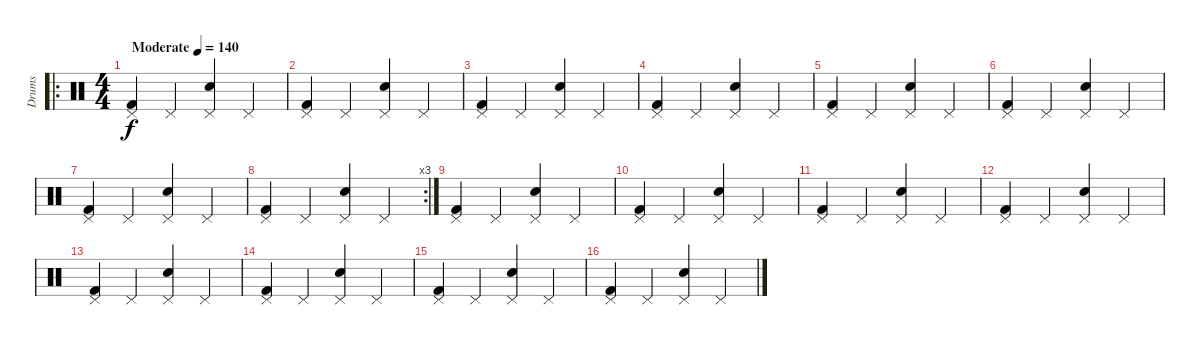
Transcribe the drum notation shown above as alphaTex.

\track ("Drums" "Drums") {instrument percussion}
\staff {score}
\articulation defaults
\ro
\ts (4 4)
\tempo (140 "Moderate")
\clef neutral
\ks c
("Kick (hit) 2" "Pedal Hi-Hat (hit)").4{dy f} "Pedal Hi-Hat (hit)".4 ("Electric Snare (hit)" "Pedal Hi-Hat (hit)").4 "Pedal Hi-Hat (hit)".4 |
("Kick (hit) 2" "Pedal Hi-Hat (hit)").4 "Pedal Hi-Hat (hit)".4 ("Electric Snare (hit)" "Pedal Hi-Hat (hit)").4 "Pedal Hi-Hat (hit)".4 |
("Kick (hit) 2" "Pedal Hi-Hat (hit)").4 "Pedal Hi-Hat (hit)".4 ("Electric Snare (hit)" "Pedal Hi-Hat (hit)").4 "Pedal Hi-Hat (hit)".4 |
("Kick (hit) 2" "Pedal Hi-Hat (hit)").4 "Pedal Hi-Hat (hit)".4 ("Electric Snare (hit)" "Pedal Hi-Hat (hit)").4 "Pedal Hi-Hat (hit)".4 |
("Kick (hit) 2" "Pedal Hi-Hat (hit)").4 "Pedal Hi-Hat (hit)".4 ("Electric Snare (hit)" "Pedal Hi-Hat (hit)").4 "Pedal Hi-Hat (hit)".4 |
("Kick (hit) 2" "Pedal Hi-Hat (hit)").4 "Pedal Hi-Hat (hit)".4 ("Electric Snare (hit)" "Pedal Hi-Hat (hit)").4 "Pedal Hi-Hat (hit)".4 |
("Kick (hit) 2" "Pedal Hi-Hat (hit)").4 "Pedal Hi-Hat (hit)".4 ("Electric Snare (hit)" "Pedal Hi-Hat (hit)").4 "Pedal Hi-Hat (hit)".4 |
\rc 3
("Kick (hit) 2" "Pedal Hi-Hat (hit)").4 "Pedal Hi-Hat (hit)".4 ("Electric Snare (hit)" "Pedal Hi-Hat (hit)").4 "Pedal Hi-Hat (hit)".4 |
("Kick (hit) 2" "Pedal Hi-Hat (hit)").4 "Pedal Hi-Hat (hit)".4 ("Electric Snare (hit)" "Pedal Hi-Hat (hit)").4 "Pedal Hi-Hat (hit)".4 |
("Kick (hit) 2" "Pedal Hi-Hat (hit)").4 "Pedal Hi-Hat (hit)".4 ("Electric Snare (hit)" "Pedal Hi-Hat (hit)").4 "Pedal Hi-Hat (hit)".4 |
("Kick (hit) 2" "Pedal Hi-Hat (hit)").4 "Pedal Hi-Hat (hit)".4 ("Electric Snare (hit)" "Pedal Hi-Hat (hit)").4 "Pedal Hi-Hat (hit)".4 |
("Kick (hit) 2" "Pedal Hi-Hat (hit)").4 "Pedal Hi-Hat (hit)".4 ("Electric Snare (hit)" "Pedal Hi-Hat (hit)").4 "Pedal Hi-Hat (hit)".4 |
("Kick (hit) 2" "Pedal Hi-Hat (hit)").4 "Pedal Hi-Hat (hit)".4 ("Electric Snare (hit)" "Pedal Hi-Hat (hit)").4 "Pedal Hi-Hat (hit)".4 |
("Kick (hit) 2" "Pedal Hi-Hat (hit)").4 "Pedal Hi-Hat (hit)".4 ("Electric Snare (hit)" "Pedal Hi-Hat (hit)").4 "Pedal Hi-Hat (hit)".4 |
("Kick (hit) 2" "Pedal Hi-Hat (hit)").4 "Pedal Hi-Hat (hit)".4 ("Electric Snare (hit)" "Pedal Hi-Hat (hit)").4 "Pedal Hi-Hat (hit)".4 |
("Kick (hit) 2" "Pedal Hi-Hat (hit)").4 "Pedal Hi-Hat (hit)".4 ("Electric Snare (hit)" "Pedal Hi-Hat (hit)").4 "Pedal Hi-Hat (hit)".4
